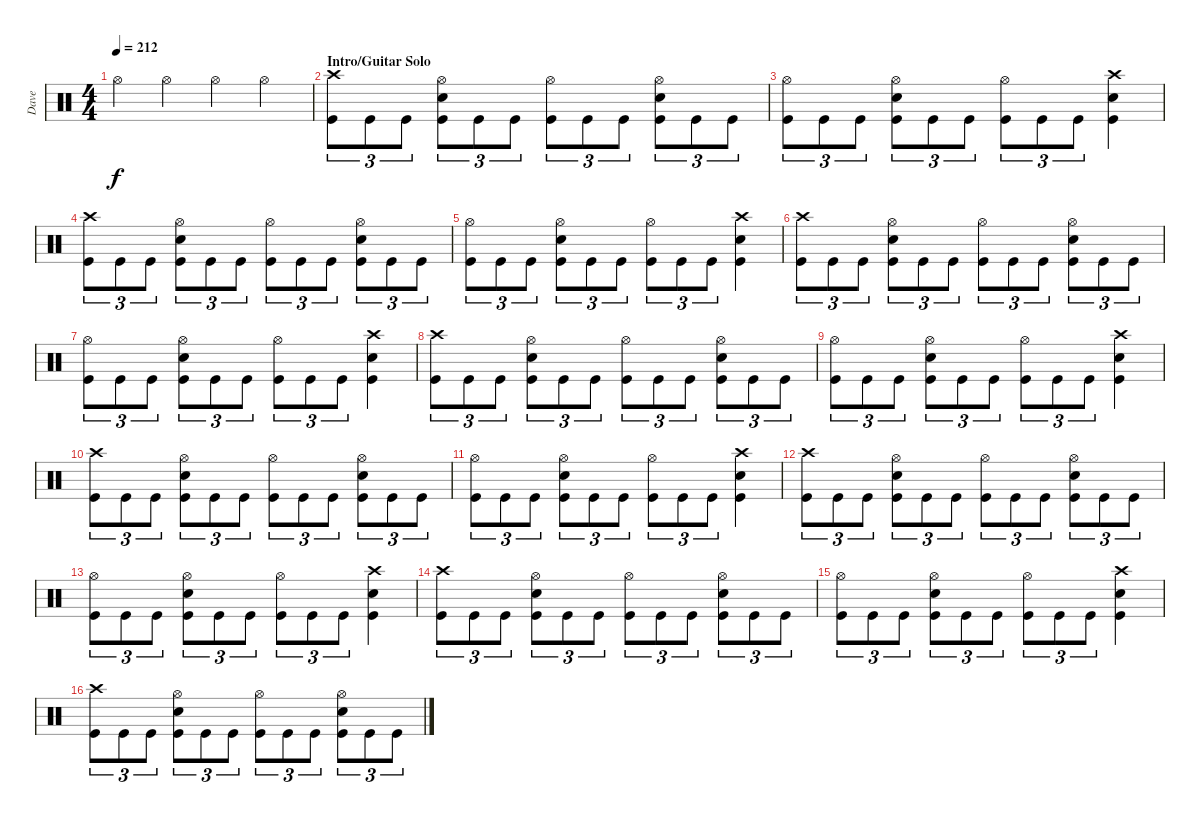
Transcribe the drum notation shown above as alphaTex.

\track ("Dave" "Dave") {instrument percussion}
\staff {score}
\articulation defaults
\ts (4 4)
\tempo 212
\clef neutral
\ks c "Hi-Hat (open)".4{dy f} "Hi-Hat (open)".4 "Hi-Hat (open)".4 "Hi-Hat (open)".4
|
\section ("" "Intro/Guitar Solo")
("Crash high (hit)" "Kick (hit)").8{tu (3 2)} "Kick (hit)".8{tu (3 2)} "Kick (hit)".8{tu (3 2)} ("Hi-Hat (open)" "Snare (hit) 2" "Kick (hit)").8{tu (3 2)} "Kick (hit)".8{tu (3 2)} "Kick (hit)".8{tu (3 2)} ("Hi-Hat (open)" "Kick (hit)").8{tu (3 2)} "Kick (hit)".8{tu (3 2)} "Kick (hit)".8{tu (3 2)} ("Hi-Hat (open)" "Snare (hit) 2" "Kick (hit)").8{tu (3 2)} "Kick (hit)".8{tu (3 2)} "Kick (hit)".8{tu (3 2)} |
("Hi-Hat (open)" "Kick (hit)").8{tu (3 2)} "Kick (hit)".8{tu (3 2)} "Kick (hit)".8{tu (3 2)} ("Hi-Hat (open)" "Snare (hit) 2" "Kick (hit)").8{tu (3 2)} "Kick (hit)".8{tu (3 2)} "Kick (hit)".8{tu (3 2)} ("Hi-Hat (open)" "Kick (hit)").8{tu (3 2)} "Kick (hit)".8{tu (3 2)} "Kick (hit)".8{tu (3 2)} ("Crash high (hit)" "Snare (hit) 2" "Kick (hit)").4 |
("Crash high (hit)" "Kick (hit)").8{tu (3 2)} "Kick (hit)".8{tu (3 2)} "Kick (hit)".8{tu (3 2)} ("Hi-Hat (open)" "Snare (hit) 2" "Kick (hit)").8{tu (3 2)} "Kick (hit)".8{tu (3 2)} "Kick (hit)".8{tu (3 2)} ("Hi-Hat (open)" "Kick (hit)").8{tu (3 2)} "Kick (hit)".8{tu (3 2)} "Kick (hit)".8{tu (3 2)} ("Hi-Hat (open)" "Snare (hit) 2" "Kick (hit)").8{tu (3 2)} "Kick (hit)".8{tu (3 2)} "Kick (hit)".8{tu (3 2)} |
("Hi-Hat (open)" "Kick (hit)").8{tu (3 2)} "Kick (hit)".8{tu (3 2)} "Kick (hit)".8{tu (3 2)} ("Hi-Hat (open)" "Snare (hit) 2" "Kick (hit)").8{tu (3 2)} "Kick (hit)".8{tu (3 2)} "Kick (hit)".8{tu (3 2)} ("Hi-Hat (open)" "Kick (hit)").8{tu (3 2)} "Kick (hit)".8{tu (3 2)} "Kick (hit)".8{tu (3 2)} ("Crash high (hit)" "Snare (hit) 2" "Kick (hit)").4 |
("Crash high (hit)" "Kick (hit)").8{tu (3 2)} "Kick (hit)".8{tu (3 2)} "Kick (hit)".8{tu (3 2)} ("Hi-Hat (open)" "Snare (hit) 2" "Kick (hit)").8{tu (3 2)} "Kick (hit)".8{tu (3 2)} "Kick (hit)".8{tu (3 2)} ("Hi-Hat (open)" "Kick (hit)").8{tu (3 2)} "Kick (hit)".8{tu (3 2)} "Kick (hit)".8{tu (3 2)} ("Hi-Hat (open)" "Snare (hit) 2" "Kick (hit)").8{tu (3 2)} "Kick (hit)".8{tu (3 2)} "Kick (hit)".8{tu (3 2)} |
("Hi-Hat (open)" "Kick (hit)").8{tu (3 2)} "Kick (hit)".8{tu (3 2)} "Kick (hit)".8{tu (3 2)} ("Hi-Hat (open)" "Snare (hit) 2" "Kick (hit)").8{tu (3 2)} "Kick (hit)".8{tu (3 2)} "Kick (hit)".8{tu (3 2)} ("Hi-Hat (open)" "Kick (hit)").8{tu (3 2)} "Kick (hit)".8{tu (3 2)} "Kick (hit)".8{tu (3 2)} ("Crash high (hit)" "Snare (hit) 2" "Kick (hit)").4 |
("Crash high (hit)" "Kick (hit)").8{tu (3 2)} "Kick (hit)".8{tu (3 2)} "Kick (hit)".8{tu (3 2)} ("Hi-Hat (open)" "Snare (hit) 2" "Kick (hit)").8{tu (3 2)} "Kick (hit)".8{tu (3 2)} "Kick (hit)".8{tu (3 2)} ("Hi-Hat (open)" "Kick (hit)").8{tu (3 2)} "Kick (hit)".8{tu (3 2)} "Kick (hit)".8{tu (3 2)} ("Hi-Hat (open)" "Snare (hit) 2" "Kick (hit)").8{tu (3 2)} "Kick (hit)".8{tu (3 2)} "Kick (hit)".8{tu (3 2)} |
("Hi-Hat (open)" "Kick (hit)").8{tu (3 2)} "Kick (hit)".8{tu (3 2)} "Kick (hit)".8{tu (3 2)} ("Hi-Hat (open)" "Snare (hit) 2" "Kick (hit)").8{tu (3 2)} "Kick (hit)".8{tu (3 2)} "Kick (hit)".8{tu (3 2)} ("Hi-Hat (open)" "Kick (hit)").8{tu (3 2)} "Kick (hit)".8{tu (3 2)} "Kick (hit)".8{tu (3 2)} ("Crash high (hit)" "Snare (hit) 2" "Kick (hit)").4 |
("Crash high (hit)" "Kick (hit)").8{tu (3 2)} "Kick (hit)".8{tu (3 2)} "Kick (hit)".8{tu (3 2)} ("Hi-Hat (open)" "Snare (hit) 2" "Kick (hit)").8{tu (3 2)} "Kick (hit)".8{tu (3 2)} "Kick (hit)".8{tu (3 2)} ("Hi-Hat (open)" "Kick (hit)").8{tu (3 2)} "Kick (hit)".8{tu (3 2)} "Kick (hit)".8{tu (3 2)} ("Hi-Hat (open)" "Snare (hit) 2" "Kick (hit)").8{tu (3 2)} "Kick (hit)".8{tu (3 2)} "Kick (hit)".8{tu (3 2)} |
("Hi-Hat (open)" "Kick (hit)").8{tu (3 2)} "Kick (hit)".8{tu (3 2)} "Kick (hit)".8{tu (3 2)} ("Hi-Hat (open)" "Snare (hit) 2" "Kick (hit)").8{tu (3 2)} "Kick (hit)".8{tu (3 2)} "Kick (hit)".8{tu (3 2)} ("Hi-Hat (open)" "Kick (hit)").8{tu (3 2)} "Kick (hit)".8{tu (3 2)} "Kick (hit)".8{tu (3 2)} ("Crash high (hit)" "Snare (hit) 2" "Kick (hit)").4 |
("Crash high (hit)" "Kick (hit)").8{tu (3 2)} "Kick (hit)".8{tu (3 2)} "Kick (hit)".8{tu (3 2)} ("Hi-Hat (open)" "Snare (hit) 2" "Kick (hit)").8{tu (3 2)} "Kick (hit)".8{tu (3 2)} "Kick (hit)".8{tu (3 2)} ("Hi-Hat (open)" "Kick (hit)").8{tu (3 2)} "Kick (hit)".8{tu (3 2)} "Kick (hit)".8{tu (3 2)} ("Hi-Hat (open)" "Snare (hit) 2" "Kick (hit)").8{tu (3 2)} "Kick (hit)".8{tu (3 2)} "Kick (hit)".8{tu (3 2)} |
("Hi-Hat (open)" "Kick (hit)").8{tu (3 2)} "Kick (hit)".8{tu (3 2)} "Kick (hit)".8{tu (3 2)} ("Hi-Hat (open)" "Snare (hit) 2" "Kick (hit)").8{tu (3 2)} "Kick (hit)".8{tu (3 2)} "Kick (hit)".8{tu (3 2)} ("Hi-Hat (open)" "Kick (hit)").8{tu (3 2)} "Kick (hit)".8{tu (3 2)} "Kick (hit)".8{tu (3 2)} ("Crash high (hit)" "Snare (hit) 2" "Kick (hit)").4 |
("Crash high (hit)" "Kick (hit)").8{tu (3 2)} "Kick (hit)".8{tu (3 2)} "Kick (hit)".8{tu (3 2)} ("Hi-Hat (open)" "Snare (hit) 2" "Kick (hit)").8{tu (3 2)} "Kick (hit)".8{tu (3 2)} "Kick (hit)".8{tu (3 2)} ("Hi-Hat (open)" "Kick (hit)").8{tu (3 2)} "Kick (hit)".8{tu (3 2)} "Kick (hit)".8{tu (3 2)} ("Hi-Hat (open)" "Snare (hit) 2" "Kick (hit)").8{tu (3 2)} "Kick (hit)".8{tu (3 2)} "Kick (hit)".8{tu (3 2)} |
("Hi-Hat (open)" "Kick (hit)").8{tu (3 2)} "Kick (hit)".8{tu (3 2)} "Kick (hit)".8{tu (3 2)} ("Hi-Hat (open)" "Snare (hit) 2" "Kick (hit)").8{tu (3 2)} "Kick (hit)".8{tu (3 2)} "Kick (hit)".8{tu (3 2)} ("Hi-Hat (open)" "Kick (hit)").8{tu (3 2)} "Kick (hit)".8{tu (3 2)} "Kick (hit)".8{tu (3 2)} ("Crash high (hit)" "Snare (hit) 2" "Kick (hit)").4 |
("Crash high (hit)" "Kick (hit)").8{tu (3 2)} "Kick (hit)".8{tu (3 2)} "Kick (hit)".8{tu (3 2)} ("Hi-Hat (open)" "Snare (hit) 2" "Kick (hit)").8{tu (3 2)} "Kick (hit)".8{tu (3 2)} "Kick (hit)".8{tu (3 2)} ("Hi-Hat (open)" "Kick (hit)").8{tu (3 2)} "Kick (hit)".8{tu (3 2)} "Kick (hit)".8{tu (3 2)} ("Hi-Hat (open)" "Snare (hit) 2" "Kick (hit)").8{tu (3 2)} "Kick (hit)".8{tu (3 2)} "Kick (hit)".8{tu (3 2)}
